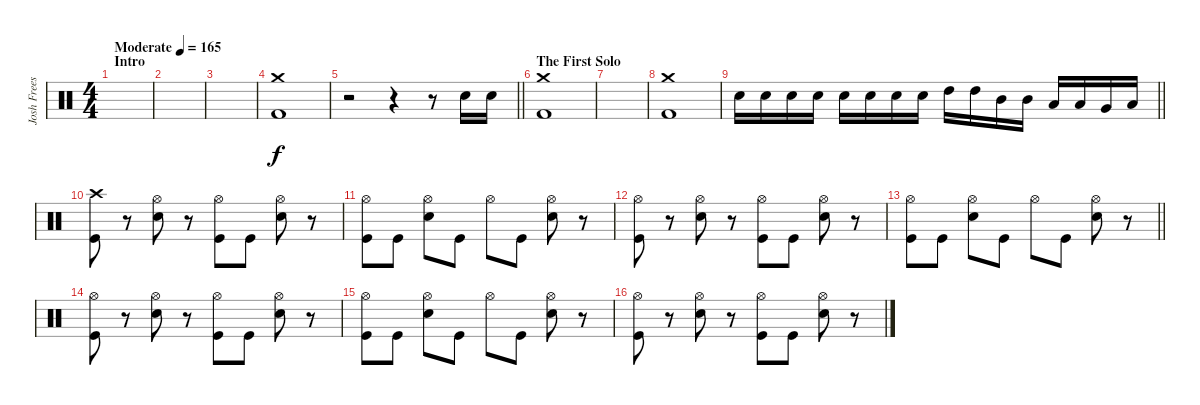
\track ("Josh Freese" "Josh Frees") {instrument percussion}
\staff {score}
\articulation defaults
\ts (4 4)
\section ("" "Intro")
\tempo (165 "Moderate")
\clef neutral
\ks c
|
|
|
("Crash medium (hit)" "Kick (hit) 2").1 |
\barLineRight lightlight
r.2 r.4 r.8 "Snare (hit) 2".16 "Snare (hit) 2".16 |
\section ("" "The First Solo")
("Crash medium (hit)" "Kick (hit) 2").1 |
|
("Crash medium (hit)" "Kick (hit) 2").1 |
\barLineRight lightlight "Electric Snare (hit)".16 "Electric Snare (hit)".16 "Electric Snare (hit)".16 "Electric Snare (hit)".16 "Electric Snare (hit)".16 "Electric Snare (hit)".16 "Electric Snare (hit)".16 "Electric Snare (hit)".16 "High Tom (hit)".16 "High Tom (hit)".16 "Mid Tom (hit)".16 "Mid Tom (hit)".16 "Low Tom (hit)".16 "Low Tom (hit)".16 "Very Low Tom (hit)".16 "Low Floor Tom (hit)".16
|
("Crash high (hit)" "Kick (hit)").8 r.8 ("Hi-Hat (open)" "Electric Snare (hit)").8 r.8 ("Hi-Hat (open)" "Kick (hit)").8 "Kick (hit)".8 ("Hi-Hat (open)" "Electric Snare (hit)").8 r.8 |
("Hi-Hat (open)" "Kick (hit)").8 "Kick (hit)".8 ("Hi-Hat (open)" "Electric Snare (hit)").8 "Kick (hit)".8 "Hi-Hat (open)".8 "Kick (hit)".8 ("Hi-Hat (open)" "Electric Snare (hit)").8 r.8 |
("Hi-Hat (open)" "Kick (hit)").8 r.8 ("Hi-Hat (open)" "Electric Snare (hit)").8 r.8 ("Hi-Hat (open)" "Kick (hit)").8 "Kick (hit)".8 ("Hi-Hat (open)" "Electric Snare (hit)").8 r.8 |
\barLineRight lightlight
("Hi-Hat (open)" "Kick (hit)").8 "Kick (hit)".8 ("Hi-Hat (open)" "Electric Snare (hit)").8 "Kick (hit)".8 "Hi-Hat (open)".8 "Kick (hit)".8 ("Hi-Hat (open)" "Electric Snare (hit)").8 r.8 |
("Hi-Hat (open)" "Kick (hit)").8 r.8 ("Hi-Hat (open)" "Electric Snare (hit)").8 r.8 ("Hi-Hat (open)" "Kick (hit)").8 "Kick (hit)".8 ("Hi-Hat (open)" "Electric Snare (hit)").8 r.8 |
("Hi-Hat (open)" "Kick (hit)").8 "Kick (hit)".8 ("Hi-Hat (open)" "Electric Snare (hit)").8 "Kick (hit)".8 "Hi-Hat (open)".8 "Kick (hit)".8 ("Hi-Hat (open)" "Electric Snare (hit)").8 r.8 |
("Hi-Hat (open)" "Kick (hit)").8 r.8 ("Hi-Hat (open)" "Electric Snare (hit)").8 r.8 ("Hi-Hat (open)" "Kick (hit)").8 "Kick (hit)".8 ("Hi-Hat (open)" "Electric Snare (hit)").8 r.8
